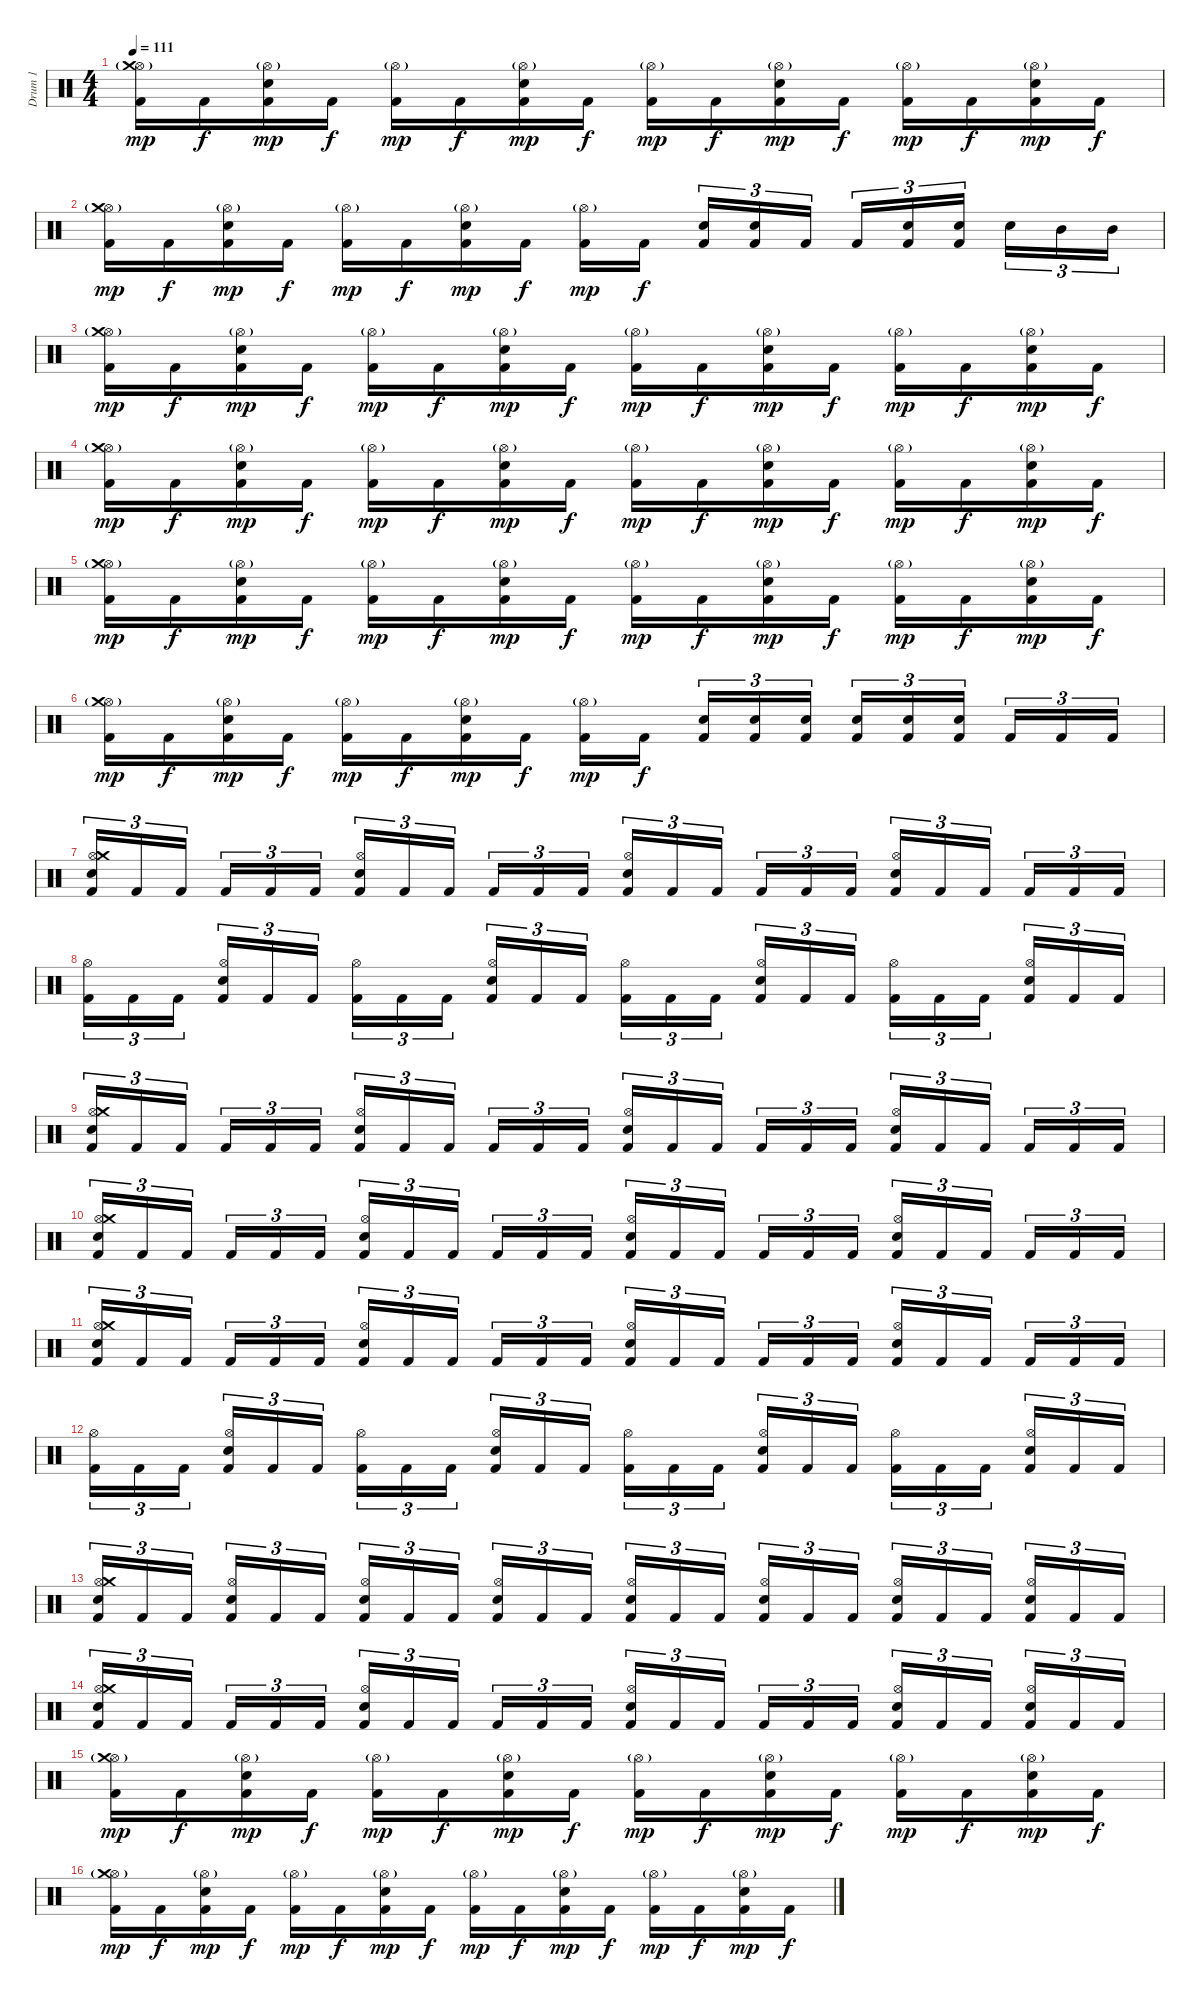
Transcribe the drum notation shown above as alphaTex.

\track ("Drum 1" "Drum 1") {instrument percussion}
\staff {score}
\articulation defaults
\ts (4 4)
\tempo 111
\clef neutral
\ks c
("Kick (hit) 2" "Hi-Hat (open)"{g} "Crash medium (hit)").16{dy mp} "Kick (hit) 2".16{dy f} ("Kick (hit) 2" "Hi-Hat (open)"{g} "Electric Snare (hit)").16{dy mp} "Kick (hit) 2".16{dy f} ("Kick (hit) 2" "Hi-Hat (open)"{g}).16{dy mp} "Kick (hit) 2".16{dy f} ("Kick (hit) 2" "Hi-Hat (open)"{g} "Electric Snare (hit)").16{dy mp} "Kick (hit) 2".16{dy f} ("Kick (hit) 2" "Hi-Hat (open)"{g}).16{dy mp} "Kick (hit) 2".16{dy f} ("Kick (hit) 2" "Hi-Hat (open)"{g} "Electric Snare (hit)").16{dy mp} "Kick (hit) 2".16{dy f} ("Kick (hit) 2" "Hi-Hat (open)"{g}).16{dy mp} "Kick (hit) 2".16{dy f} ("Kick (hit) 2" "Hi-Hat (open)"{g} "Electric Snare (hit)").16{dy mp} "Kick (hit) 2".16{dy f} |
("Kick (hit) 2" "Hi-Hat (open)"{g} "Crash medium (hit)").16{dy mp} "Kick (hit) 2".16{dy f} ("Kick (hit) 2" "Hi-Hat (open)"{g} "Electric Snare (hit)").16{dy mp} "Kick (hit) 2".16{dy f} ("Kick (hit) 2" "Hi-Hat (open)"{g}).16{dy mp} "Kick (hit) 2".16{dy f} ("Kick (hit) 2" "Hi-Hat (open)"{g} "Electric Snare (hit)").16{dy mp} "Kick (hit) 2".16{dy f} ("Kick (hit) 2" "Hi-Hat (open)"{g}).16{dy mp} "Kick (hit) 2".16{dy f} ("Kick (hit) 2" "Electric Snare (hit)").16{tu (3 2)} ("Kick (hit) 2" "Electric Snare (hit)").16{tu (3 2)} "Kick (hit) 2".16{tu (3 2)} "Kick (hit) 2".16{tu (3 2)} ("Kick (hit) 2" "Electric Snare (hit)").16{tu (3 2)} ("Kick (hit) 2" "Electric Snare (hit)").16{tu (3 2)} "Electric Snare (hit)".16{tu (3 2)} "Mid Tom (hit)".16{tu (3 2)} "Mid Tom (hit)".16{tu (3 2)} |
("Kick (hit) 2" "Hi-Hat (open)"{g} "Crash medium (hit)").16{dy mp} "Kick (hit) 2".16{dy f} ("Kick (hit) 2" "Hi-Hat (open)"{g} "Electric Snare (hit)").16{dy mp} "Kick (hit) 2".16{dy f} ("Kick (hit) 2" "Hi-Hat (open)"{g}).16{dy mp} "Kick (hit) 2".16{dy f} ("Kick (hit) 2" "Hi-Hat (open)"{g} "Electric Snare (hit)").16{dy mp} "Kick (hit) 2".16{dy f} ("Kick (hit) 2" "Hi-Hat (open)"{g}).16{dy mp} "Kick (hit) 2".16{dy f} ("Kick (hit) 2" "Hi-Hat (open)"{g} "Electric Snare (hit)").16{dy mp} "Kick (hit) 2".16{dy f} ("Kick (hit) 2" "Hi-Hat (open)"{g}).16{dy mp} "Kick (hit) 2".16{dy f} ("Kick (hit) 2" "Hi-Hat (open)"{g} "Electric Snare (hit)").16{dy mp} "Kick (hit) 2".16{dy f} |
("Kick (hit) 2" "Hi-Hat (open)"{g} "Crash medium (hit)").16{dy mp} "Kick (hit) 2".16{dy f} ("Kick (hit) 2" "Hi-Hat (open)"{g} "Electric Snare (hit)").16{dy mp} "Kick (hit) 2".16{dy f} ("Kick (hit) 2" "Hi-Hat (open)"{g}).16{dy mp} "Kick (hit) 2".16{dy f} ("Kick (hit) 2" "Hi-Hat (open)"{g} "Electric Snare (hit)").16{dy mp} "Kick (hit) 2".16{dy f} ("Kick (hit) 2" "Hi-Hat (open)"{g}).16{dy mp} "Kick (hit) 2".16{dy f} ("Kick (hit) 2" "Hi-Hat (open)"{g} "Electric Snare (hit)").16{dy mp} "Kick (hit) 2".16{dy f} ("Kick (hit) 2" "Hi-Hat (open)"{g}).16{dy mp} "Kick (hit) 2".16{dy f} ("Kick (hit) 2" "Hi-Hat (open)"{g} "Electric Snare (hit)").16{dy mp} "Kick (hit) 2".16{dy f} |
("Kick (hit) 2" "Hi-Hat (open)"{g} "Crash medium (hit)").16{dy mp} "Kick (hit) 2".16{dy f} ("Kick (hit) 2" "Hi-Hat (open)"{g} "Electric Snare (hit)").16{dy mp} "Kick (hit) 2".16{dy f} ("Kick (hit) 2" "Hi-Hat (open)"{g}).16{dy mp} "Kick (hit) 2".16{dy f} ("Kick (hit) 2" "Hi-Hat (open)"{g} "Electric Snare (hit)").16{dy mp} "Kick (hit) 2".16{dy f} ("Kick (hit) 2" "Hi-Hat (open)"{g}).16{dy mp} "Kick (hit) 2".16{dy f} ("Kick (hit) 2" "Hi-Hat (open)"{g} "Electric Snare (hit)").16{dy mp} "Kick (hit) 2".16{dy f} ("Kick (hit) 2" "Hi-Hat (open)"{g}).16{dy mp} "Kick (hit) 2".16{dy f} ("Kick (hit) 2" "Hi-Hat (open)"{g} "Electric Snare (hit)").16{dy mp} "Kick (hit) 2".16{dy f} |
("Kick (hit) 2" "Hi-Hat (open)"{g} "Crash medium (hit)").16{dy mp} "Kick (hit) 2".16{dy f} ("Kick (hit) 2" "Hi-Hat (open)"{g} "Electric Snare (hit)").16{dy mp} "Kick (hit) 2".16{dy f} ("Kick (hit) 2" "Hi-Hat (open)"{g}).16{dy mp} "Kick (hit) 2".16{dy f} ("Kick (hit) 2" "Hi-Hat (open)"{g} "Electric Snare (hit)").16{dy mp} "Kick (hit) 2".16{dy f} ("Kick (hit) 2" "Hi-Hat (open)"{g}).16{dy mp} "Kick (hit) 2".16{dy f} ("Kick (hit) 2" "Electric Snare (hit)").16{tu (3 2)} ("Kick (hit) 2" "Electric Snare (hit)").16{tu (3 2)} ("Kick (hit) 2" "Electric Snare (hit)").16{tu (3 2)} ("Kick (hit) 2" "Electric Snare (hit)").16{tu (3 2)} ("Kick (hit) 2" "Electric Snare (hit)").16{tu (3 2)} ("Kick (hit) 2" "Electric Snare (hit)").16{tu (3 2)} "Kick (hit) 2".16{tu (3 2)} "Kick (hit) 2".16{tu (3 2)} "Kick (hit) 2".16{tu (3 2)} |
("Kick (hit) 2" "Hi-Hat (open)" "Crash medium (hit)" "Electric Snare (hit)").16{tu (3 2)} "Kick (hit) 2".16{tu (3 2)} "Kick (hit) 2".16{tu (3 2)} "Kick (hit) 2".16{tu (3 2)} "Kick (hit) 2".16{tu (3 2)} "Kick (hit) 2".16{tu (3 2)} ("Kick (hit) 2" "Hi-Hat (open)" "Electric Snare (hit)").16{tu (3 2)} "Kick (hit) 2".16{tu (3 2)} "Kick (hit) 2".16{tu (3 2)} "Kick (hit) 2".16{tu (3 2)} "Kick (hit) 2".16{tu (3 2)} "Kick (hit) 2".16{tu (3 2)} ("Kick (hit) 2" "Hi-Hat (open)" "Electric Snare (hit)").16{tu (3 2)} "Kick (hit) 2".16{tu (3 2)} "Kick (hit) 2".16{tu (3 2)} "Kick (hit) 2".16{tu (3 2)} "Kick (hit) 2".16{tu (3 2)} "Kick (hit) 2".16{tu (3 2)} ("Kick (hit) 2" "Hi-Hat (open)" "Electric Snare (hit)").16{tu (3 2)} "Kick (hit) 2".16{tu (3 2)} "Kick (hit) 2".16{tu (3 2)} "Kick (hit) 2".16{tu (3 2)} "Kick (hit) 2".16{tu (3 2)} "Kick (hit) 2".16{tu (3 2)} |
("Kick (hit) 2" "Hi-Hat (open)").16{tu (3 2)} "Kick (hit) 2".16{tu (3 2)} "Kick (hit) 2".16{tu (3 2)} ("Kick (hit) 2" "Hi-Hat (open)" "Electric Snare (hit)").16{tu (3 2)} "Kick (hit) 2".16{tu (3 2)} "Kick (hit) 2".16{tu (3 2)} ("Kick (hit) 2" "Hi-Hat (open)").16{tu (3 2)} "Kick (hit) 2".16{tu (3 2)} "Kick (hit) 2".16{tu (3 2)} ("Kick (hit) 2" "Hi-Hat (open)" "Electric Snare (hit)").16{tu (3 2)} "Kick (hit) 2".16{tu (3 2)} "Kick (hit) 2".16{tu (3 2)} ("Kick (hit) 2" "Hi-Hat (open)").16{tu (3 2)} "Kick (hit) 2".16{tu (3 2)} "Kick (hit) 2".16{tu (3 2)} ("Kick (hit) 2" "Hi-Hat (open)" "Electric Snare (hit)").16{tu (3 2)} "Kick (hit) 2".16{tu (3 2)} "Kick (hit) 2".16{tu (3 2)} ("Kick (hit) 2" "Hi-Hat (open)").16{tu (3 2)} "Kick (hit) 2".16{tu (3 2)} "Kick (hit) 2".16{tu (3 2)} ("Kick (hit) 2" "Hi-Hat (open)" "Electric Snare (hit)").16{tu (3 2)} "Kick (hit) 2".16{tu (3 2)} "Kick (hit) 2".16{tu (3 2)} |
("Kick (hit) 2" "Hi-Hat (open)" "Crash medium (hit)" "Electric Snare (hit)").16{tu (3 2)} "Kick (hit) 2".16{tu (3 2)} "Kick (hit) 2".16{tu (3 2)} "Kick (hit) 2".16{tu (3 2)} "Kick (hit) 2".16{tu (3 2)} "Kick (hit) 2".16{tu (3 2)} ("Kick (hit) 2" "Hi-Hat (open)" "Electric Snare (hit)").16{tu (3 2)} "Kick (hit) 2".16{tu (3 2)} "Kick (hit) 2".16{tu (3 2)} "Kick (hit) 2".16{tu (3 2)} "Kick (hit) 2".16{tu (3 2)} "Kick (hit) 2".16{tu (3 2)} ("Kick (hit) 2" "Hi-Hat (open)" "Electric Snare (hit)").16{tu (3 2)} "Kick (hit) 2".16{tu (3 2)} "Kick (hit) 2".16{tu (3 2)} "Kick (hit) 2".16{tu (3 2)} "Kick (hit) 2".16{tu (3 2)} "Kick (hit) 2".16{tu (3 2)} ("Kick (hit) 2" "Hi-Hat (open)" "Electric Snare (hit)").16{tu (3 2)} "Kick (hit) 2".16{tu (3 2)} "Kick (hit) 2".16{tu (3 2)} "Kick (hit) 2".16{tu (3 2)} "Kick (hit) 2".16{tu (3 2)} "Kick (hit) 2".16{tu (3 2)} |
("Kick (hit) 2" "Hi-Hat (open)" "Crash medium (hit)" "Electric Snare (hit)").16{tu (3 2)} "Kick (hit) 2".16{tu (3 2)} "Kick (hit) 2".16{tu (3 2)} "Kick (hit) 2".16{tu (3 2)} "Kick (hit) 2".16{tu (3 2)} "Kick (hit) 2".16{tu (3 2)} ("Kick (hit) 2" "Hi-Hat (open)" "Electric Snare (hit)").16{tu (3 2)} "Kick (hit) 2".16{tu (3 2)} "Kick (hit) 2".16{tu (3 2)} "Kick (hit) 2".16{tu (3 2)} "Kick (hit) 2".16{tu (3 2)} "Kick (hit) 2".16{tu (3 2)} ("Kick (hit) 2" "Hi-Hat (open)" "Electric Snare (hit)").16{tu (3 2)} "Kick (hit) 2".16{tu (3 2)} "Kick (hit) 2".16{tu (3 2)} "Kick (hit) 2".16{tu (3 2)} "Kick (hit) 2".16{tu (3 2)} "Kick (hit) 2".16{tu (3 2)} ("Kick (hit) 2" "Hi-Hat (open)" "Electric Snare (hit)").16{tu (3 2)} "Kick (hit) 2".16{tu (3 2)} "Kick (hit) 2".16{tu (3 2)} "Kick (hit) 2".16{tu (3 2)} "Kick (hit) 2".16{tu (3 2)} "Kick (hit) 2".16{tu (3 2)} |
("Kick (hit) 2" "Hi-Hat (open)" "Crash medium (hit)" "Electric Snare (hit)").16{tu (3 2)} "Kick (hit) 2".16{tu (3 2)} "Kick (hit) 2".16{tu (3 2)} "Kick (hit) 2".16{tu (3 2)} "Kick (hit) 2".16{tu (3 2)} "Kick (hit) 2".16{tu (3 2)} ("Kick (hit) 2" "Hi-Hat (open)" "Electric Snare (hit)").16{tu (3 2)} "Kick (hit) 2".16{tu (3 2)} "Kick (hit) 2".16{tu (3 2)} "Kick (hit) 2".16{tu (3 2)} "Kick (hit) 2".16{tu (3 2)} "Kick (hit) 2".16{tu (3 2)} ("Kick (hit) 2" "Hi-Hat (open)" "Electric Snare (hit)").16{tu (3 2)} "Kick (hit) 2".16{tu (3 2)} "Kick (hit) 2".16{tu (3 2)} "Kick (hit) 2".16{tu (3 2)} "Kick (hit) 2".16{tu (3 2)} "Kick (hit) 2".16{tu (3 2)} ("Kick (hit) 2" "Hi-Hat (open)" "Electric Snare (hit)").16{tu (3 2)} "Kick (hit) 2".16{tu (3 2)} "Kick (hit) 2".16{tu (3 2)} "Kick (hit) 2".16{tu (3 2)} "Kick (hit) 2".16{tu (3 2)} "Kick (hit) 2".16{tu (3 2)} |
("Kick (hit) 2" "Hi-Hat (open)").16{tu (3 2)} "Kick (hit) 2".16{tu (3 2)} "Kick (hit) 2".16{tu (3 2)} ("Kick (hit) 2" "Hi-Hat (open)" "Electric Snare (hit)").16{tu (3 2)} "Kick (hit) 2".16{tu (3 2)} "Kick (hit) 2".16{tu (3 2)} ("Kick (hit) 2" "Hi-Hat (open)").16{tu (3 2)} "Kick (hit) 2".16{tu (3 2)} "Kick (hit) 2".16{tu (3 2)} ("Kick (hit) 2" "Hi-Hat (open)" "Electric Snare (hit)").16{tu (3 2)} "Kick (hit) 2".16{tu (3 2)} "Kick (hit) 2".16{tu (3 2)} ("Kick (hit) 2" "Hi-Hat (open)").16{tu (3 2)} "Kick (hit) 2".16{tu (3 2)} "Kick (hit) 2".16{tu (3 2)} ("Kick (hit) 2" "Hi-Hat (open)" "Electric Snare (hit)").16{tu (3 2)} "Kick (hit) 2".16{tu (3 2)} "Kick (hit) 2".16{tu (3 2)} ("Kick (hit) 2" "Hi-Hat (open)").16{tu (3 2)} "Kick (hit) 2".16{tu (3 2)} "Kick (hit) 2".16{tu (3 2)} ("Kick (hit) 2" "Hi-Hat (open)" "Electric Snare (hit)").16{tu (3 2)} "Kick (hit) 2".16{tu (3 2)} "Kick (hit) 2".16{tu (3 2)} |
("Kick (hit) 2" "Hi-Hat (open)" "Crash medium (hit)" "Electric Snare (hit)").16{tu (3 2)} "Kick (hit) 2".16{tu (3 2)} "Kick (hit) 2".16{tu (3 2)} ("Kick (hit) 2" "Hi-Hat (open)" "Electric Snare (hit)").16{tu (3 2)} "Kick (hit) 2".16{tu (3 2)} "Kick (hit) 2".16{tu (3 2)} ("Kick (hit) 2" "Hi-Hat (open)" "Electric Snare (hit)").16{tu (3 2)} "Kick (hit) 2".16{tu (3 2)} "Kick (hit) 2".16{tu (3 2)} ("Kick (hit) 2" "Hi-Hat (open)" "Electric Snare (hit)").16{tu (3 2)} "Kick (hit) 2".16{tu (3 2)} "Kick (hit) 2".16{tu (3 2)} ("Kick (hit) 2" "Hi-Hat (open)" "Electric Snare (hit)").16{tu (3 2)} "Kick (hit) 2".16{tu (3 2)} "Kick (hit) 2".16{tu (3 2)} ("Kick (hit) 2" "Hi-Hat (open)" "Electric Snare (hit)").16{tu (3 2)} "Kick (hit) 2".16{tu (3 2)} "Kick (hit) 2".16{tu (3 2)} ("Kick (hit) 2" "Hi-Hat (open)" "Electric Snare (hit)").16{tu (3 2)} "Kick (hit) 2".16{tu (3 2)} "Kick (hit) 2".16{tu (3 2)} ("Kick (hit) 2" "Hi-Hat (open)" "Electric Snare (hit)").16{tu (3 2)} "Kick (hit) 2".16{tu (3 2)} "Kick (hit) 2".16{tu (3 2)} |
("Kick (hit) 2" "Hi-Hat (open)" "Crash medium (hit)" "Electric Snare (hit)").16{tu (3 2)} "Kick (hit) 2".16{tu (3 2)} "Kick (hit) 2".16{tu (3 2)} "Kick (hit) 2".16{tu (3 2)} "Kick (hit) 2".16{tu (3 2)} "Kick (hit) 2".16{tu (3 2)} ("Kick (hit) 2" "Hi-Hat (open)" "Electric Snare (hit)").16{tu (3 2)} "Kick (hit) 2".16{tu (3 2)} "Kick (hit) 2".16{tu (3 2)} "Kick (hit) 2".16{tu (3 2)} "Kick (hit) 2".16{tu (3 2)} "Kick (hit) 2".16{tu (3 2)} ("Kick (hit) 2" "Hi-Hat (open)" "Electric Snare (hit)").16{tu (3 2)} "Kick (hit) 2".16{tu (3 2)} "Kick (hit) 2".16{tu (3 2)} "Kick (hit) 2".16{tu (3 2)} "Kick (hit) 2".16{tu (3 2)} "Kick (hit) 2".16{tu (3 2)} ("Kick (hit) 2" "Hi-Hat (open)" "Electric Snare (hit)").16{tu (3 2)} "Kick (hit) 2".16{tu (3 2)} "Kick (hit) 2".16{tu (3 2)} ("Kick (hit) 2" "Hi-Hat (open)" "Electric Snare (hit)").16{tu (3 2)} "Kick (hit) 2".16{tu (3 2)} "Kick (hit) 2".16{tu (3 2)} |
("Kick (hit) 2" "Hi-Hat (open)"{g} "Crash medium (hit)").16{dy mp} "Kick (hit) 2".16{dy f} ("Kick (hit) 2" "Hi-Hat (open)"{g} "Electric Snare (hit)").16{dy mp} "Kick (hit) 2".16{dy f} ("Kick (hit) 2" "Hi-Hat (open)"{g}).16{dy mp} "Kick (hit) 2".16{dy f} ("Kick (hit) 2" "Hi-Hat (open)"{g} "Electric Snare (hit)").16{dy mp} "Kick (hit) 2".16{dy f} ("Kick (hit) 2" "Hi-Hat (open)"{g}).16{dy mp} "Kick (hit) 2".16{dy f} ("Kick (hit) 2" "Hi-Hat (open)"{g} "Electric Snare (hit)").16{dy mp} "Kick (hit) 2".16{dy f} ("Kick (hit) 2" "Hi-Hat (open)"{g}).16{dy mp} "Kick (hit) 2".16{dy f} ("Kick (hit) 2" "Hi-Hat (open)"{g} "Electric Snare (hit)").16{dy mp} "Kick (hit) 2".16{dy f} |
("Kick (hit) 2" "Hi-Hat (open)"{g} "Crash medium (hit)").16{dy mp} "Kick (hit) 2".16{dy f} ("Kick (hit) 2" "Hi-Hat (open)"{g} "Electric Snare (hit)").16{dy mp} "Kick (hit) 2".16{dy f} ("Kick (hit) 2" "Hi-Hat (open)"{g}).16{dy mp} "Kick (hit) 2".16{dy f} ("Kick (hit) 2" "Hi-Hat (open)"{g} "Electric Snare (hit)").16{dy mp} "Kick (hit) 2".16{dy f} ("Kick (hit) 2" "Hi-Hat (open)"{g}).16{dy mp} "Kick (hit) 2".16{dy f} ("Kick (hit) 2" "Hi-Hat (open)"{g} "Electric Snare (hit)").16{dy mp} "Kick (hit) 2".16{dy f} ("Kick (hit) 2" "Hi-Hat (open)"{g}).16{dy mp} "Kick (hit) 2".16{dy f} ("Kick (hit) 2" "Hi-Hat (open)"{g} "Electric Snare (hit)").16{dy mp} "Kick (hit) 2".16{dy f}
